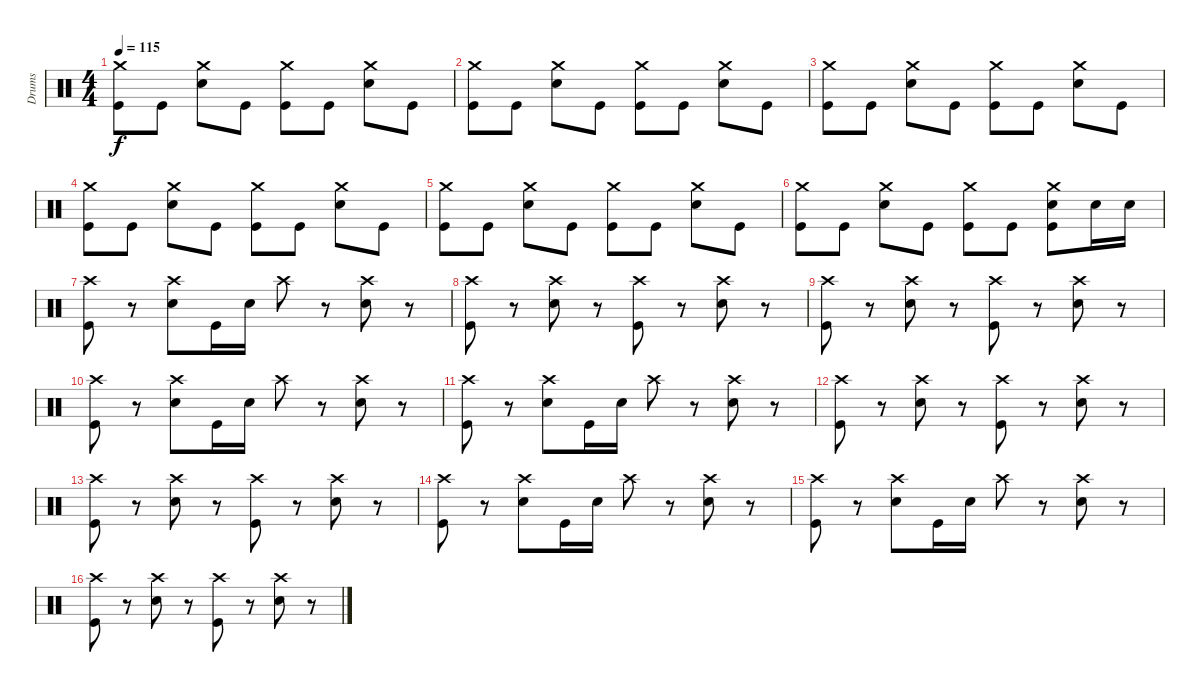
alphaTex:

\track ("Drums" "Drums") {instrument percussion}
\staff {score}
\articulation defaults
\ts (4 4)
\tempo 115
\clef neutral
\ks c
("Crash medium (hit)" "Kick (hit)").8{dy f} "Kick (hit)".8 ("Crash medium (hit)" "Electric Snare (hit)").8 "Kick (hit)".8 ("Crash medium (hit)" "Kick (hit)").8 "Kick (hit)".8 ("Crash medium (hit)" "Electric Snare (hit)").8 "Kick (hit)".8 |
("Crash medium (hit)" "Kick (hit)").8 "Kick (hit)".8 ("Crash medium (hit)" "Electric Snare (hit)").8 "Kick (hit)".8 ("Crash medium (hit)" "Kick (hit)").8 "Kick (hit)".8 ("Crash medium (hit)" "Electric Snare (hit)").8 "Kick (hit)".8 |
("Crash medium (hit)" "Kick (hit)").8 "Kick (hit)".8 ("Crash medium (hit)" "Electric Snare (hit)").8 "Kick (hit)".8 ("Crash medium (hit)" "Kick (hit)").8 "Kick (hit)".8 ("Crash medium (hit)" "Electric Snare (hit)").8 "Kick (hit)".8 |
("Crash medium (hit)" "Kick (hit)").8 "Kick (hit)".8 ("Crash medium (hit)" "Electric Snare (hit)").8 "Kick (hit)".8 ("Crash medium (hit)" "Kick (hit)").8 "Kick (hit)".8 ("Crash medium (hit)" "Electric Snare (hit)").8 "Kick (hit)".8 |
("Crash medium (hit)" "Kick (hit)").8 "Kick (hit)".8 ("Crash medium (hit)" "Electric Snare (hit)").8 "Kick (hit)".8 ("Crash medium (hit)" "Kick (hit)").8 "Kick (hit)".8 ("Crash medium (hit)" "Electric Snare (hit)").8 "Kick (hit)".8 |
("Crash medium (hit)" "Kick (hit)").8 "Kick (hit)".8 ("Crash medium (hit)" "Electric Snare (hit)").8 "Kick (hit)".8 ("Crash medium (hit)" "Kick (hit)").8 "Kick (hit)".8 ("Crash medium (hit)" "Electric Snare (hit)" "Kick (hit)").8 "Electric Snare (hit)".16 "Electric Snare (hit)".16 |
("Crash high (hit)" "Kick (hit)").8 r.8 ("Crash high (hit)" "Electric Snare (hit)").8 "Kick (hit)".16 "Electric Snare (hit)".16 "Crash high (hit)".8 r.8 ("Crash high (hit)" "Electric Snare (hit)").8 r.8 |
("Crash high (hit)" "Kick (hit)").8 r.8 ("Crash high (hit)" "Electric Snare (hit)").8 r.8 ("Crash high (hit)" "Kick (hit)").8 r.8 ("Crash high (hit)" "Electric Snare (hit)").8 r.8 |
("Crash high (hit)" "Kick (hit)").8 r.8 ("Crash high (hit)" "Electric Snare (hit)").8 r.8 ("Crash high (hit)" "Kick (hit)").8 r.8 ("Crash high (hit)" "Electric Snare (hit)").8 r.8 |
("Crash high (hit)" "Kick (hit)").8 r.8 ("Crash high (hit)" "Electric Snare (hit)").8 "Kick (hit)".16 "Electric Snare (hit)".16 "Crash high (hit)".8 r.8 ("Crash high (hit)" "Electric Snare (hit)").8 r.8 |
("Crash high (hit)" "Kick (hit)").8 r.8 ("Crash high (hit)" "Electric Snare (hit)").8 "Kick (hit)".16 "Electric Snare (hit)".16 "Crash high (hit)".8 r.8 ("Crash high (hit)" "Electric Snare (hit)").8 r.8 |
("Crash high (hit)" "Kick (hit)").8 r.8 ("Crash high (hit)" "Electric Snare (hit)").8 r.8 ("Crash high (hit)" "Kick (hit)").8 r.8 ("Crash high (hit)" "Electric Snare (hit)").8 r.8 |
("Crash high (hit)" "Kick (hit)").8 r.8 ("Crash high (hit)" "Electric Snare (hit)").8 r.8 ("Crash high (hit)" "Kick (hit)").8 r.8 ("Crash high (hit)" "Electric Snare (hit)").8 r.8 |
("Crash high (hit)" "Kick (hit)").8 r.8 ("Crash high (hit)" "Electric Snare (hit)").8 "Kick (hit)".16 "Electric Snare (hit)".16 "Crash high (hit)".8 r.8 ("Crash high (hit)" "Electric Snare (hit)").8 r.8 |
("Crash high (hit)" "Kick (hit)").8 r.8 ("Crash high (hit)" "Electric Snare (hit)").8 "Kick (hit)".16 "Electric Snare (hit)".16 "Crash high (hit)".8 r.8 ("Crash high (hit)" "Electric Snare (hit)").8 r.8 |
("Crash high (hit)" "Kick (hit)").8 r.8 ("Crash high (hit)" "Electric Snare (hit)").8 r.8 ("Crash high (hit)" "Kick (hit)").8 r.8 ("Crash high (hit)" "Electric Snare (hit)").8 r.8
